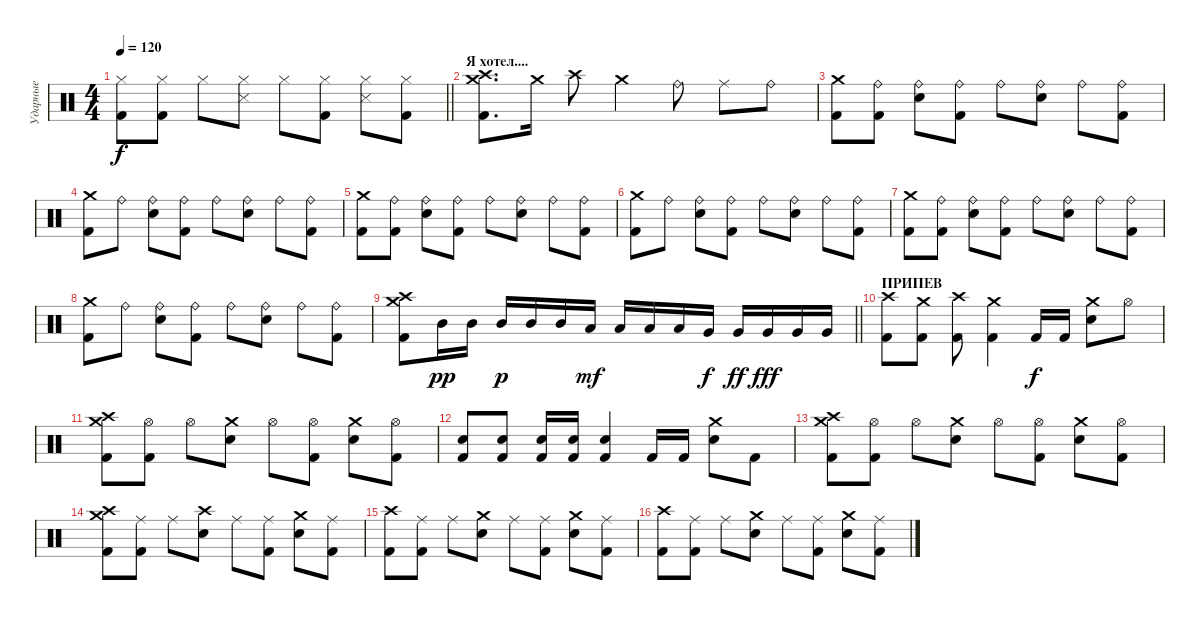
\track ("Ударные" "Ударные") {instrument percussion}
\staff
\articulation defaults
\ts (4 4)
\tempo 120
\clef neutral
\barLineRight lightlight
\ks c
("Hi-Hat (closed)" "Kick (hit) 2").8{dy f} ("Hi-Hat (closed)" "Kick (hit) 2").8 "Hi-Hat (closed)".8 ("Hi-Hat (closed)" "Snare (side stick) 3").8 "Hi-Hat (closed)".8 ("Hi-Hat (closed)" "Kick (hit) 2").8 ("Hi-Hat (closed)" "Snare (side stick) 3").8 ("Hi-Hat (closed)" "Kick (hit) 2").8 |
\section ("" "Я хотел....")
("Crash high (hit)" "Crash medium (hit)" "Kick (hit) 2").8{d} "Crash medium (hit)".16 "Crash high (hit)".8 "Crash medium (hit)".4 "Ride (bell)".8 "Ride (middle)".8 "Ride (bell)".8 |
("Crash medium (hit)" "Kick (hit) 2").8 ("Ride (bell)" "Kick (hit) 2").8 ("Ride (bell)" "Electric Snare (hit)").8 ("Ride (bell)" "Kick (hit) 2").8 "Ride (bell)".8 ("Ride (bell)" "Electric Snare (hit)").8 "Ride (bell)".8 ("Ride (bell)" "Kick (hit) 2").8 |
("Crash medium (hit)" "Kick (hit) 2").8 "Ride (bell)".8 ("Ride (bell)" "Electric Snare (hit)").8 ("Ride (bell)" "Kick (hit) 2").8 "Ride (bell)".8 ("Ride (bell)" "Electric Snare (hit)").8 "Ride (bell)".8 ("Ride (bell)" "Kick (hit) 2").8 |
("Crash medium (hit)" "Kick (hit) 2").8 ("Ride (bell)" "Kick (hit) 2").8 ("Ride (bell)" "Electric Snare (hit)").8 ("Ride (bell)" "Kick (hit) 2").8 "Ride (bell)".8 ("Ride (bell)" "Electric Snare (hit)").8 "Ride (bell)".8 ("Ride (bell)" "Kick (hit) 2").8 |
("Crash medium (hit)" "Kick (hit) 2").8 "Ride (bell)".8 ("Ride (bell)" "Electric Snare (hit)").8 ("Ride (bell)" "Kick (hit) 2").8 "Ride (bell)".8 ("Ride (bell)" "Electric Snare (hit)").8 "Ride (bell)".8 ("Ride (bell)" "Kick (hit) 2").8 |
("Crash medium (hit)" "Kick (hit) 2").8 ("Ride (bell)" "Kick (hit) 2").8 ("Ride (bell)" "Electric Snare (hit)").8 ("Ride (bell)" "Kick (hit) 2").8 "Ride (bell)".8 ("Ride (bell)" "Electric Snare (hit)").8 "Ride (bell)".8 ("Ride (bell)" "Kick (hit) 2").8 |
("Crash medium (hit)" "Kick (hit) 2").8 "Ride (bell)".8 ("Ride (bell)" "Electric Snare (hit)").8 ("Ride (bell)" "Kick (hit) 2").8 "Ride (bell)".8 ("Ride (bell)" "Electric Snare (hit)").8 "Ride (bell)".8 ("Ride (bell)" "Kick (hit) 2").8 |
\barLineRight lightlight
("Crash high (hit)" "Crash medium (hit)" "Kick (hit) 2").8 "Mid Tom (hit)".16{dy pp} "Mid Tom (hit)".16 "Mid Tom (hit)".16{dy p} "Mid Tom (hit)".16 "Mid Tom (hit)".16 "Low Tom (hit)".16{dy mf} "Low Tom (hit)".16 "Low Tom (hit)".16 "Low Tom (hit)".16 "Very Low Tom (hit)".16{dy f} "Very Low Tom (hit)".16{dy ff} "Very Low Tom (hit)".16{dy fff} "Very Low Tom (hit)".16 "Very Low Tom (hit)".16 |
\section ("" "ПРИПЕВ")
("Crash high (hit)" "Kick (hit) 2").8 ("Crash medium (hit)" "Kick (hit) 2").8 ("Crash high (hit)" "Kick (hit) 2").8 ("Crash medium (hit)" "Kick (hit) 2").4 "Kick (hit) 2".16{dy f} "Kick (hit) 2".16 ("Crash medium (hit)" "Electric Snare (hit)").8 "Hi-Hat (open)".8 |
("Crash high (hit)" "Crash medium (hit)" "Kick (hit) 2").8 ("Hi-Hat (open)" "Kick (hit) 2").8 "Hi-Hat (open)".8 ("Crash medium (hit)" "Electric Snare (hit)").8 "Hi-Hat (open)".8 ("Hi-Hat (open)" "Kick (hit) 2").8 ("Crash medium (hit)" "Electric Snare (hit)").8 ("Hi-Hat (open)" "Kick (hit) 2").8 |
("Electric Snare (hit)" "Kick (hit) 2").8 ("Electric Snare (hit)" "Kick (hit) 2").8 ("Electric Snare (hit)" "Kick (hit) 2").16 ("Electric Snare (hit)" "Kick (hit) 2").16 ("Electric Snare (hit)" "Kick (hit) 2").4 "Kick (hit) 2".16 "Kick (hit) 2".16 ("Crash medium (hit)" "Electric Snare (hit)").8 "Kick (hit) 2".8 |
("Crash high (hit)" "Crash medium (hit)" "Kick (hit) 2").8 ("Hi-Hat (open)" "Kick (hit) 2").8 "Hi-Hat (open)".8 ("Crash medium (hit)" "Electric Snare (hit)").8 "Hi-Hat (open)".8 ("Hi-Hat (open)" "Kick (hit) 2").8 ("Crash medium (hit)" "Electric Snare (hit)").8 ("Hi-Hat (open)" "Kick (hit) 2").8 |
("Crash high (hit)" "Crash medium (hit)" "Kick (hit) 2").8 ("Ride (middle)" "Kick (hit) 2").8 "Ride (middle)".8 ("Crash high (hit)" "Electric Snare (hit)").8 "Ride (middle)".8 ("Ride (middle)" "Kick (hit) 2").8 ("Crash medium (hit)" "Electric Snare (hit)").8 ("Ride (middle)" "Kick (hit) 2").8 |
("Crash high (hit)" "Kick (hit) 2").8 ("Ride (middle)" "Kick (hit) 2").8 "Ride (middle)".8 ("Crash medium (hit)" "Electric Snare (hit)").8 "Ride (middle)".8 ("Ride (middle)" "Kick (hit) 2").8 ("Crash medium (hit)" "Electric Snare (hit)").8 ("Ride (middle)" "Kick (hit) 2").8 |
("Crash high (hit)" "Kick (hit) 2").8 ("Ride (middle)" "Kick (hit) 2").8 "Ride (middle)".8 ("Crash medium (hit)" "Electric Snare (hit)").8 "Ride (middle)".8 ("Ride (middle)" "Kick (hit) 2").8 ("Crash medium (hit)" "Electric Snare (hit)").8 ("Ride (middle)" "Kick (hit) 2").8
